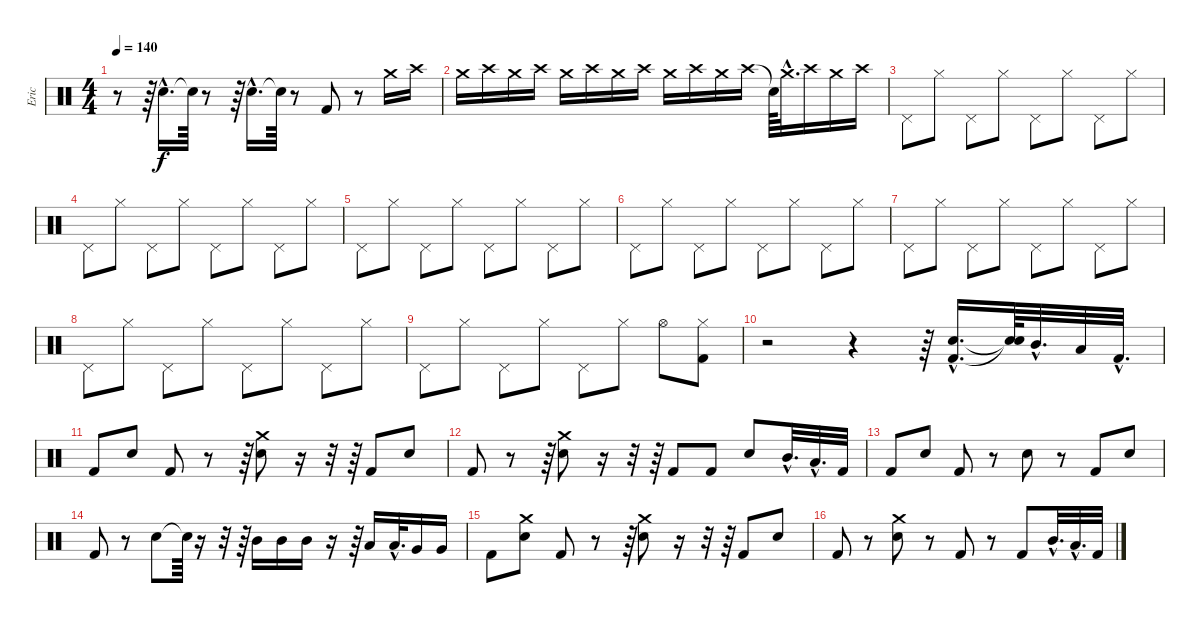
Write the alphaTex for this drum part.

\track ("Eric" "Eric") {instrument percussion}
\staff {score}
\articulation defaults
\ts (4 4)
\tempo 140
\clef neutral
\ks c
r.8{dy f} r.64 "Electric Snare (hit)"{hac}.16{d} "Snare (hit)"{t}.64 r.8 r.64 "Electric Snare (hit)"{hac}.16{d} "Snare (hit)"{t}.64 r.8 "Kick (hit) 2".8 r.8 "Crash medium (hit)".16 "Crash high (hit)".16 |
"Crash medium (hit)".16 "Crash high (hit)".16 "Crash medium (hit)".16 "Crash high (hit)".16 "Crash medium (hit)".16 "Crash high (hit)".16 "Crash medium (hit)".16 "Crash high (hit)".16 "Crash medium (hit)".16 "Crash high (hit)".16 "Crash medium (hit)".16 "Crash high (hit)".16 "Snare (hit)"{t}.64 "Crash medium (hit)"{hac}.32{d} "Crash high (hit)".16 "Crash medium (hit)".16 "Crash high (hit)".16 |
"Pedal Hi-Hat (hit)".8 "Hi-Hat (closed)".8 "Pedal Hi-Hat (hit)".8 "Hi-Hat (closed)".8 "Pedal Hi-Hat (hit)".8 "Hi-Hat (closed)".8 "Pedal Hi-Hat (hit)".8 "Hi-Hat (closed)".8 |
"Pedal Hi-Hat (hit)".8 "Hi-Hat (closed)".8 "Pedal Hi-Hat (hit)".8 "Hi-Hat (closed)".8 "Pedal Hi-Hat (hit)".8 "Hi-Hat (closed)".8 "Pedal Hi-Hat (hit)".8 "Hi-Hat (closed)".8 |
"Pedal Hi-Hat (hit)".8 "Hi-Hat (closed)".8 "Pedal Hi-Hat (hit)".8 "Hi-Hat (closed)".8 "Pedal Hi-Hat (hit)".8 "Hi-Hat (closed)".8 "Pedal Hi-Hat (hit)".8 "Hi-Hat (closed)".8 |
"Pedal Hi-Hat (hit)".8 "Hi-Hat (closed)".8 "Pedal Hi-Hat (hit)".8 "Hi-Hat (closed)".8 "Pedal Hi-Hat (hit)".8 "Hi-Hat (closed)".8 "Pedal Hi-Hat (hit)".8 "Hi-Hat (closed)".8 |
"Pedal Hi-Hat (hit)".8 "Hi-Hat (closed)".8 "Pedal Hi-Hat (hit)".8 "Hi-Hat (closed)".8 "Pedal Hi-Hat (hit)".8 "Hi-Hat (closed)".8 "Pedal Hi-Hat (hit)".8 "Hi-Hat (closed)".8 |
"Pedal Hi-Hat (hit)".8 "Hi-Hat (closed)".8 "Pedal Hi-Hat (hit)".8 "Hi-Hat (closed)".8 "Pedal Hi-Hat (hit)".8 "Hi-Hat (closed)".8 "Pedal Hi-Hat (hit)".8 "Hi-Hat (closed)".8 |
"Pedal Hi-Hat (hit)".8 "Hi-Hat (closed)".8 "Pedal Hi-Hat (hit)".8 "Hi-Hat (closed)".8 "Pedal Hi-Hat (hit)".8 "Hi-Hat (closed)".8 "Hi-Hat (open)".8 ("Kick (hit) 2" "Hi-Hat (closed)").8 |
r.2 r.4 r.64 ("Kick (hit) 2"{hac} "Electric Snare (hit)"{hac}).16{d} ("Snare (hit)"{t} "Snare (hit)"{t}).64 "Mid Tom (hit)"{hac}.32{d} "Low Tom (hit)".32 "Kick (hit) 2"{hac}.32{d} |
"Kick (hit) 2".8 "Electric Snare (hit)".8 "Kick (hit) 2".8 r.8 r.64 ("Crash medium (hit)" "Electric Snare (hit)").8 r.16 r.32 r.64 "Kick (hit) 2".8 "Electric Snare (hit)".8 |
"Kick (hit) 2".8 r.8 r.64 ("Crash medium (hit)" "Electric Snare (hit)").8 r.16 r.32 r.64 "Kick (hit) 2".8 "Kick (hit) 2".8 "Electric Snare (hit)".8 "Mid Tom (hit)"{hac}.32{d} "Low Tom (hit)"{hac}.32{d} "Kick (hit) 2".32 |
"Kick (hit) 2".8 "Electric Snare (hit)".8 "Kick (hit) 2".8 r.8 "Electric Snare (hit)".8 r.8 "Kick (hit) 2".8 "Electric Snare (hit)".8 |
"Kick (hit) 2".8 r.8 "Electric Snare (hit)".8 "Snare (hit)"{t}.64 r.16 r.32 r.64 "Mid Tom (hit)".16 "Mid Tom (hit)".16 "Mid Tom (hit)".16 r.16 r.64 "Low Tom (hit)".16 "Low Tom (hit)"{hac}.32{d} "Very Low Tom (hit)".16 "Very Low Tom (hit)".16 |
"Kick (hit) 2".8 ("Crash medium (hit)" "Electric Snare (hit)").8 "Kick (hit) 2".8 r.8 r.64 ("Crash medium (hit)" "Electric Snare (hit)").8 r.16 r.32 r.64 "Kick (hit) 2".8 "Electric Snare (hit)".8 |
"Kick (hit) 2".8 r.8 ("Crash medium (hit)" "Electric Snare (hit)").8 r.8 "Kick (hit) 2".8 r.8 "Kick (hit) 2".8 "Mid Tom (hit)"{hac}.32{d} "Low Tom (hit)"{hac}.32{d} "Kick (hit) 2".32
